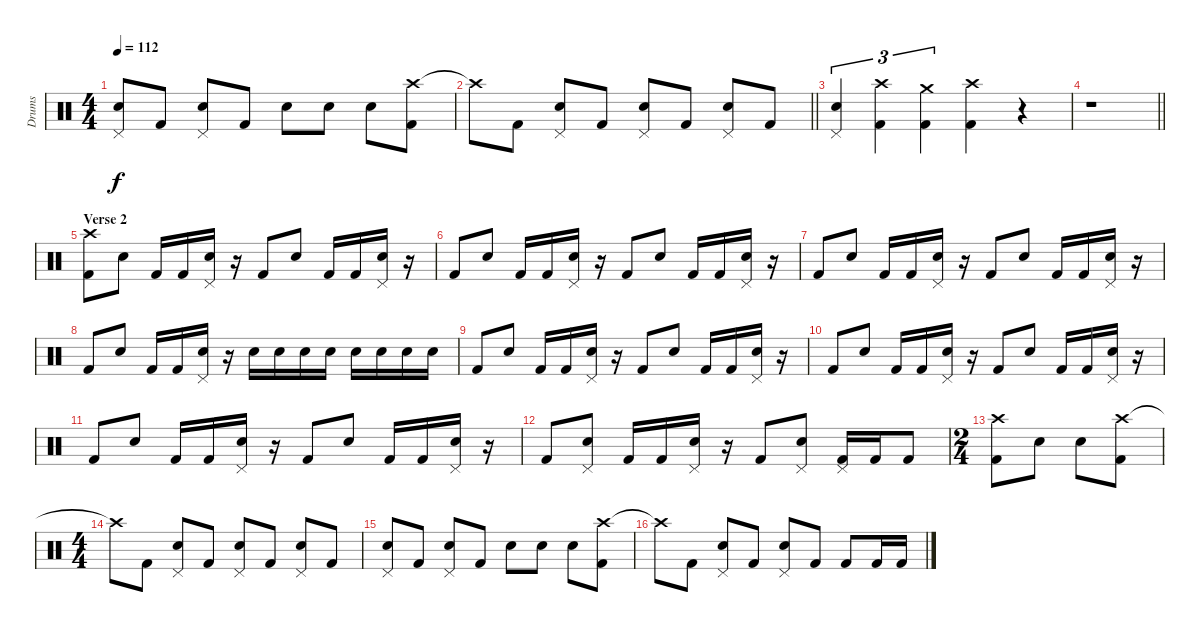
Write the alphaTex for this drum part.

\track ("Drums" "Drums") {instrument percussion}
\staff {score}
\articulation defaults
\ts (4 4)
\tempo 112
\clef neutral
\ks c
("Pedal Hi-Hat (hit)" "Electric Snare (hit)").8{dy f} "Kick (hit) 2".8 ("Pedal Hi-Hat (hit)" "Electric Snare (hit)").8 "Kick (hit) 2".8 "Electric Snare (hit)".8 "Electric Snare (hit)".8 "Electric Snare (hit)".8 ("Crash high (hit)" "Kick (hit) 2").8 |
\barLineRight lightlight "Crash high (hit)"{t}.8 "Kick (hit) 2".8
("Pedal Hi-Hat (hit)" "Electric Snare (hit)").8 "Kick (hit) 2".8 ("Pedal Hi-Hat (hit)" "Electric Snare (hit)").8 "Kick (hit) 2".8 ("Pedal Hi-Hat (hit)" "Electric Snare (hit)").8 "Kick (hit) 2".8 |
\section ("" "")
("Pedal Hi-Hat (hit)" "Electric Snare (hit)").4{tu (3 2)} ("Crash high (hit)" "Kick (hit) 2").4{tu (3 2)} ("Crash medium (hit)" "Kick (hit) 2").4{tu (3 2)} ("Crash high (hit)" "Kick (hit) 2").4 r.4 |
\barLineRight lightlight
r.1 |
\section ("" "Verse 2")
("Crash high (hit)" "Kick (hit) 2").8 "Electric Snare (hit)".8 "Kick (hit) 2".16 "Kick (hit) 2".16 ("Pedal Hi-Hat (hit)" "Electric Snare (hit)").16 r.16 "Kick (hit) 2".8 "Electric Snare (hit)".8 "Kick (hit) 2".16 "Kick (hit) 2".16 ("Pedal Hi-Hat (hit)" "Electric Snare (hit)").16 r.16 |
"Kick (hit) 2".8 "Electric Snare (hit)".8 "Kick (hit) 2".16 "Kick (hit) 2".16 ("Pedal Hi-Hat (hit)" "Electric Snare (hit)").16 r.16 "Kick (hit) 2".8 "Electric Snare (hit)".8 "Kick (hit) 2".16 "Kick (hit) 2".16 ("Pedal Hi-Hat (hit)" "Electric Snare (hit)").16 r.16 |
"Kick (hit) 2".8 "Electric Snare (hit)".8 "Kick (hit) 2".16 "Kick (hit) 2".16 ("Pedal Hi-Hat (hit)" "Electric Snare (hit)").16 r.16 "Kick (hit) 2".8 "Electric Snare (hit)".8 "Kick (hit) 2".16 "Kick (hit) 2".16 ("Pedal Hi-Hat (hit)" "Electric Snare (hit)").16 r.16 |
"Kick (hit) 2".8 "Electric Snare (hit)".8 "Kick (hit) 2".16 "Kick (hit) 2".16 ("Pedal Hi-Hat (hit)" "Electric Snare (hit)").16 r.16 "Electric Snare (hit)".16 "Electric Snare (hit)".16 "Electric Snare (hit)".16 "Electric Snare (hit)".16 "Electric Snare (hit)".16 "Electric Snare (hit)".16 "Electric Snare (hit)".16 "Electric Snare (hit)".16 |
"Kick (hit) 2".8 "Electric Snare (hit)".8 "Kick (hit) 2".16 "Kick (hit) 2".16 ("Pedal Hi-Hat (hit)" "Electric Snare (hit)").16 r.16 "Kick (hit) 2".8 "Electric Snare (hit)".8 "Kick (hit) 2".16 "Kick (hit) 2".16 ("Pedal Hi-Hat (hit)" "Electric Snare (hit)").16 r.16 |
"Kick (hit) 2".8 "Electric Snare (hit)".8 "Kick (hit) 2".16 "Kick (hit) 2".16 ("Pedal Hi-Hat (hit)" "Electric Snare (hit)").16 r.16 "Kick (hit) 2".8 "Electric Snare (hit)".8 "Kick (hit) 2".16 "Kick (hit) 2".16 ("Pedal Hi-Hat (hit)" "Electric Snare (hit)").16 r.16 |
"Kick (hit) 2".8 "Electric Snare (hit)".8 "Kick (hit) 2".16 "Kick (hit) 2".16 ("Pedal Hi-Hat (hit)" "Electric Snare (hit)").16 r.16 "Kick (hit) 2".8 "Electric Snare (hit)".8 "Kick (hit) 2".16 "Kick (hit) 2".16 ("Pedal Hi-Hat (hit)" "Electric Snare (hit)").16 r.16 |
"Kick (hit) 2".8 ("Pedal Hi-Hat (hit)" "Electric Snare (hit)").8 "Kick (hit) 2".16 "Kick (hit) 2".16 ("Pedal Hi-Hat (hit)" "Electric Snare (hit)").16 r.16 "Kick (hit) 2".8 ("Pedal Hi-Hat (hit)" "Electric Snare (hit)").8 ("Pedal Hi-Hat (hit)" "Kick (hit) 2").16 "Kick (hit) 2".16 "Kick (hit) 2".8 |
\ts (2 4)
("Crash high (hit)" "Kick (hit) 2").8 "Electric Snare (hit)".8 "Electric Snare (hit)".8 ("Crash high (hit)" "Kick (hit) 2").8 |
\ts (4 4)
"Crash high (hit)"{t}.8 "Kick (hit) 2".8 ("Pedal Hi-Hat (hit)" "Electric Snare (hit)").8 "Kick (hit) 2".8 ("Pedal Hi-Hat (hit)" "Electric Snare (hit)").8 "Kick (hit) 2".8 ("Pedal Hi-Hat (hit)" "Electric Snare (hit)").8 "Kick (hit) 2".8 |
("Pedal Hi-Hat (hit)" "Electric Snare (hit)").8 "Kick (hit) 2".8 ("Pedal Hi-Hat (hit)" "Electric Snare (hit)").8 "Kick (hit) 2".8 "Electric Snare (hit)".8 "Electric Snare (hit)".8 "Electric Snare (hit)".8 ("Crash high (hit)" "Kick (hit) 2").8 |
"Crash high (hit)"{t}.8 "Kick (hit) 2".8 ("Pedal Hi-Hat (hit)" "Electric Snare (hit)").8 "Kick (hit) 2".8 ("Pedal Hi-Hat (hit)" "Electric Snare (hit)").8 "Kick (hit) 2".8 "Kick (hit) 2".8 "Kick (hit) 2".16 "Kick (hit) 2".16
